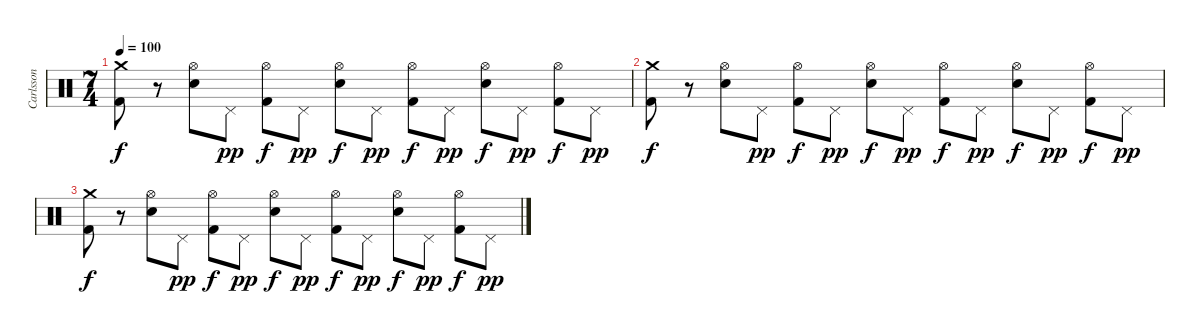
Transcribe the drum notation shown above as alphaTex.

\track ("Carlsson" "Carlsson") {instrument percussion}
\staff {score}
\articulation defaults
\ts (7 4)
\tempo 100
\clef neutral
\ks c
("Crash medium (hit)" "Kick (hit) 2").8{dy f} r.8 ("Hi-Hat (open)" "Electric Snare (hit)").8 "Pedal Hi-Hat (hit)".8{dy pp} ("Hi-Hat (open)" "Kick (hit) 2").8{dy f} "Pedal Hi-Hat (hit)".8{dy pp} ("Hi-Hat (open)" "Electric Snare (hit)").8{dy f} "Pedal Hi-Hat (hit)".8{dy pp} ("Hi-Hat (open)" "Kick (hit) 2").8{dy f} "Pedal Hi-Hat (hit)".8{dy pp} ("Hi-Hat (open)" "Electric Snare (hit)").8{dy f} "Pedal Hi-Hat (hit)".8{dy pp} ("Hi-Hat (open)" "Kick (hit) 2").8{dy f} "Pedal Hi-Hat (hit)".8{dy pp} |
("Crash medium (hit)" "Kick (hit) 2").8{dy f} r.8 ("Hi-Hat (open)" "Electric Snare (hit)").8 "Pedal Hi-Hat (hit)".8{dy pp} ("Hi-Hat (open)" "Kick (hit) 2").8{dy f} "Pedal Hi-Hat (hit)".8{dy pp} ("Hi-Hat (open)" "Electric Snare (hit)").8{dy f} "Pedal Hi-Hat (hit)".8{dy pp} ("Hi-Hat (open)" "Kick (hit) 2").8{dy f} "Pedal Hi-Hat (hit)".8{dy pp} ("Hi-Hat (open)" "Electric Snare (hit)").8{dy f} "Pedal Hi-Hat (hit)".8{dy pp} ("Hi-Hat (open)" "Kick (hit) 2").8{dy f} "Pedal Hi-Hat (hit)".8{dy pp} |
("Crash medium (hit)" "Kick (hit) 2").8{dy f} r.8 ("Hi-Hat (open)" "Electric Snare (hit)").8 "Pedal Hi-Hat (hit)".8{dy pp} ("Hi-Hat (open)" "Kick (hit) 2").8{dy f} "Pedal Hi-Hat (hit)".8{dy pp} ("Hi-Hat (open)" "Electric Snare (hit)").8{dy f} "Pedal Hi-Hat (hit)".8{dy pp} ("Hi-Hat (open)" "Kick (hit) 2").8{dy f} "Pedal Hi-Hat (hit)".8{dy pp} ("Hi-Hat (open)" "Electric Snare (hit)").8{dy f} "Pedal Hi-Hat (hit)".8{dy pp} ("Hi-Hat (open)" "Kick (hit) 2").8{dy f} "Pedal Hi-Hat (hit)".8{dy pp}
